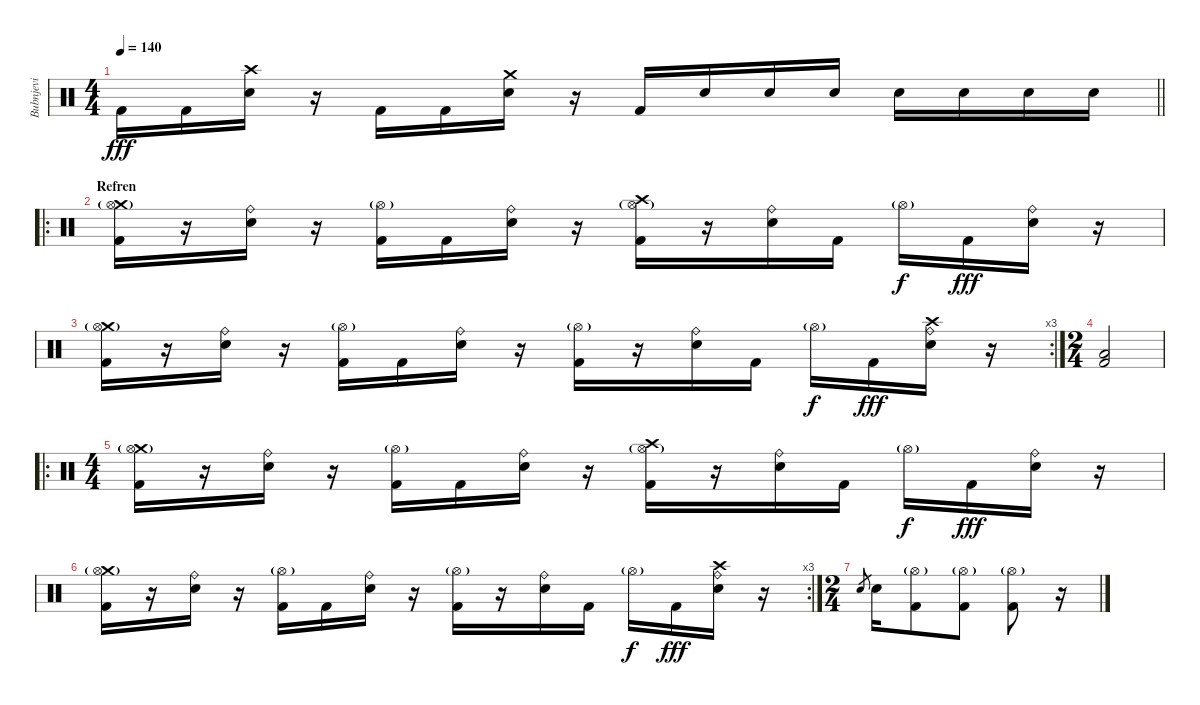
\track ("Bubnjevi" "Bubnjevi") {instrument percussion}
\staff {score}
\articulation defaults
\ts (4 4)
\tempo 140
\clef neutral
\barLineRight lightlight
\ks c "Kick (hit) 2".16{dy fff} "Kick (hit) 2".16
("Crash high (hit)" "Snare (hit) 2").16 r.16 "Kick (hit) 2".16 "Kick (hit) 2".16 ("Crash medium (hit)" "Snare (hit) 2").16 r.16 "Kick (hit) 2".16 "Snare (hit) 2".16 "Snare (hit) 2".16 "Snare (hit) 2".16 "Snare (hit) 2".16 "Snare (hit) 2".16 "Snare (hit) 2".16 "Snare (hit) 2".16 |
\ro
\section ("" "Refren")
("Crash medium (hit)" "Hi-Hat (open)"{g} "Kick (hit) 2").16 r.16 ("Ride (bell)" "Snare (hit) 2").16 r.16 ("Hi-Hat (open)"{g} "Kick (hit) 2").16 "Kick (hit) 2".16 ("Ride (bell)" "Snare (hit) 2").16 r.16 ("Crash high (hit)" "Hi-Hat (open)"{g} "Kick (hit) 2").16 r.16 ("Ride (bell)" "Snare (hit) 2").16 "Kick (hit) 2".16 "Hi-Hat (open)"{g}.16{dy f} "Kick (hit) 2".16{dy fff} ("Ride (bell)" "Snare (hit) 2").16 r.16 |
\rc 3
("Crash medium (hit)" "Hi-Hat (open)"{g} "Kick (hit) 2").16 r.16 ("Ride (bell)" "Snare (hit) 2").16 r.16 ("Hi-Hat (open)"{g} "Kick (hit) 2").16 "Kick (hit) 2".16 ("Ride (bell)" "Snare (hit) 2").16 r.16 ("Hi-Hat (open)"{g} "Kick (hit) 2").16 r.16 ("Ride (bell)" "Snare (hit) 2").16 "Kick (hit) 2".16 "Hi-Hat (open)"{g}.16{dy f} "Kick (hit) 2".16{dy fff} ("Crash high (hit)" "Ride (bell)" "Snare (hit) 2").16 r.16 |
\ts (2 4)
("Low Tom (hit)" "Kick (hit) 2").2 |
\ro
\ts (4 4)
("Crash medium (hit)" "Hi-Hat (open)"{g} "Kick (hit) 2").16 r.16 ("Ride (bell)" "Snare (hit) 2").16 r.16 ("Hi-Hat (open)"{g} "Kick (hit) 2").16 "Kick (hit) 2".16 ("Ride (bell)" "Snare (hit) 2").16 r.16 ("Crash high (hit)" "Hi-Hat (open)"{g} "Kick (hit) 2").16 r.16 ("Ride (bell)" "Snare (hit) 2").16 "Kick (hit) 2".16 "Hi-Hat (open)"{g}.16{dy f} "Kick (hit) 2".16{dy fff} ("Ride (bell)" "Snare (hit) 2").16 r.16 |
\rc 3
("Crash medium (hit)" "Hi-Hat (open)"{g} "Kick (hit) 2").16 r.16 ("Ride (bell)" "Snare (hit) 2").16 r.16 ("Hi-Hat (open)"{g} "Kick (hit) 2").16 "Kick (hit) 2".16 ("Ride (bell)" "Snare (hit) 2").16 r.16 ("Hi-Hat (open)"{g} "Kick (hit) 2").16 r.16 ("Ride (bell)" "Snare (hit) 2").16 "Kick (hit) 2".16 "Hi-Hat (open)"{g}.16{dy f} "Kick (hit) 2".16{dy fff} ("Crash high (hit)" "Ride (bell)" "Snare (hit) 2").16 r.16 |
\ts (2 4)
"Snare (hit) 2".8{gr} "Snare (hit) 2".16 ("Hi-Hat (open)"{g} "Kick (hit) 2").8 ("Hi-Hat (open)"{g} "Kick (hit) 2").8 ("Hi-Hat (open)"{g} "Kick (hit) 2").8 r.16
